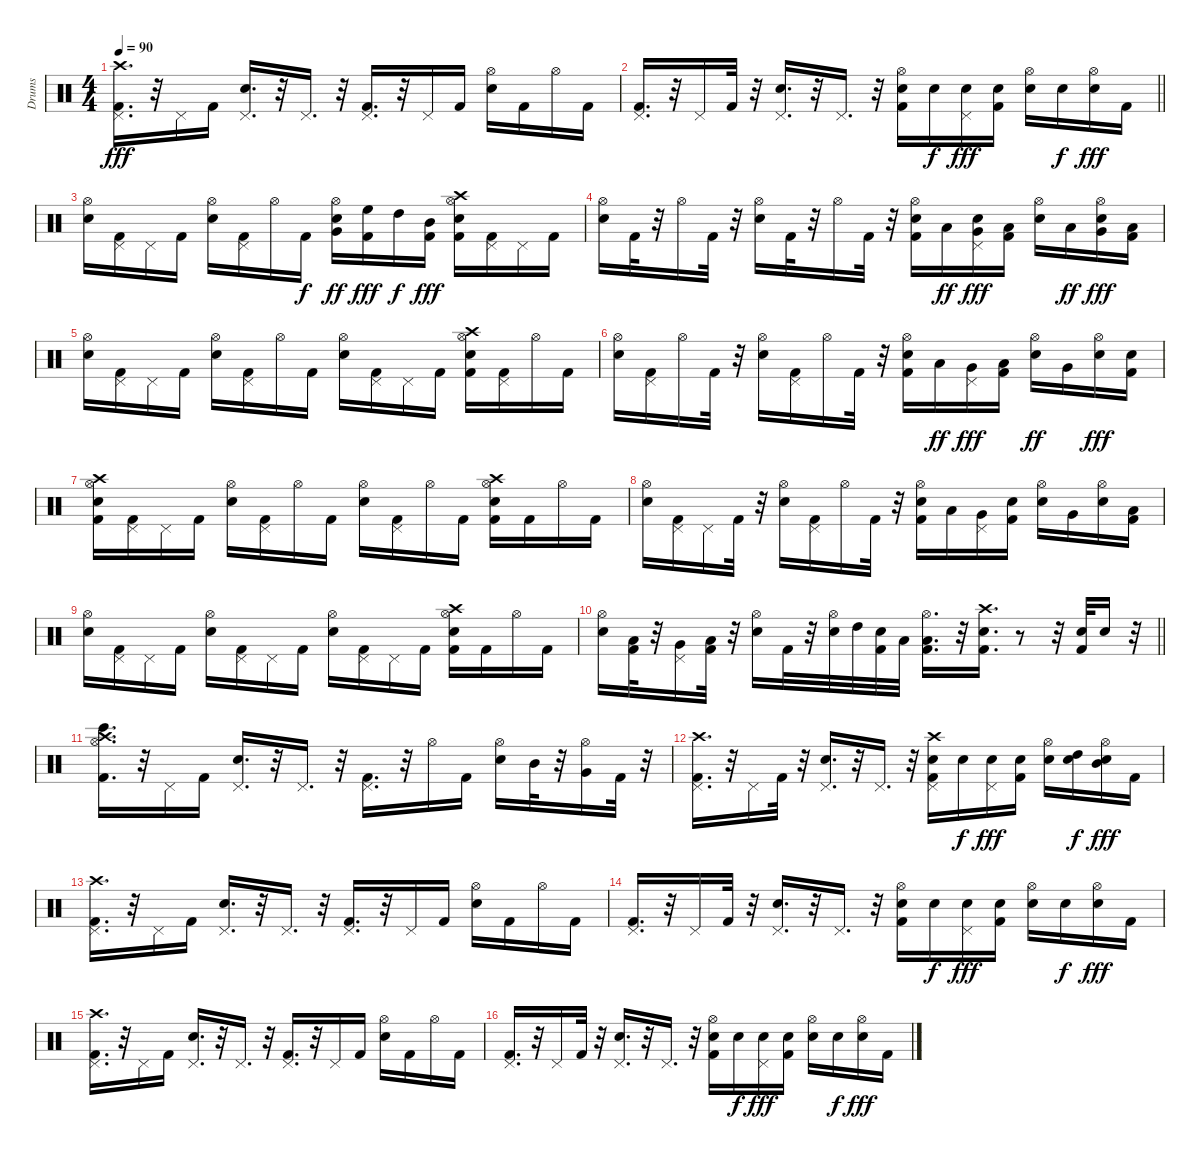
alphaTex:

\track ("Drums" "Drums") {instrument percussion}
\staff {score}
\articulation defaults
\ts (4 4)
\tempo 90
\clef neutral
\ks c
("Crash high (hit)" "Kick (hit) 2" "Pedal Hi-Hat (hit)").16{d dy fff} r.32 "Pedal Hi-Hat (hit)".16 "Kick (hit) 2".16 ("Electric Snare (hit)" "Pedal Hi-Hat (hit)").16{d} r.32 "Pedal Hi-Hat (hit)".16{d} r.32 ("Pedal Hi-Hat (hit)" "Kick (hit) 2").16{d} r.32 "Pedal Hi-Hat (hit)".16 "Kick (hit) 2".16 ("Hi-Hat (open)" "Electric Snare (hit)").16 "Kick (hit) 2".16 "Hi-Hat (open)".16 "Kick (hit) 2".16 |
\barLineRight lightlight
("Pedal Hi-Hat (hit)" "Kick (hit) 2").16{d} r.32 "Pedal Hi-Hat (hit)".16 "Kick (hit) 2".32 r.32 ("Pedal Hi-Hat (hit)" "Electric Snare (hit)").16{d} r.32 "Pedal Hi-Hat (hit)".16{d} r.32 ("Hi-Hat (open)" "Electric Snare (hit)" "Kick (hit) 2").16 "Electric Snare (hit)".16{dy f} ("Pedal Hi-Hat (hit)" "Electric Snare (hit)").16{dy fff} ("Electric Snare (hit)" "Kick (hit) 2").16 ("Hi-Hat (open)" "Electric Snare (hit)").16 "Electric Snare (hit)".16{dy f} ("Hi-Hat (open)" "Electric Snare (hit)").16{dy fff} "Kick (hit) 2".16 |
("Hi-Hat (open)" "Electric Snare (hit)").16 ("Kick (hit) 2" "Pedal Hi-Hat (hit)").16 "Pedal Hi-Hat (hit)".16 "Kick (hit) 2".16 ("Electric Snare (hit)" "Hi-Hat (open)").16 ("Kick (hit) 2" "Pedal Hi-Hat (hit)").16 "Hi-Hat (open)".16 "Kick (hit) 2".16{dy f} ("Electric Snare (hit)" "Hi-Hat (open)" "Very Low Tom (hit)").16{dy ff} ("Kick (hit) 2" "High Floor Tom (hit)").16{dy fff} "High Tom (hit)".16{dy f} ("Kick (hit) 2" "Mid Tom (hit)").16{dy fff} ("Kick (hit) 2" "Crash high (hit)" "Hi-Hat (open)" "Electric Snare (hit)").16 ("Kick (hit) 2" "Pedal Hi-Hat (hit)").16 "Pedal Hi-Hat (hit)".16 "Kick (hit) 2".16 |
("Hi-Hat (open)" "Electric Snare (hit)").16 "Kick (hit) 2".32 r.32 "Hi-Hat (open)".16 "Kick (hit) 2".32 r.32 ("Hi-Hat (open)" "Electric Snare (hit)").16 "Kick (hit) 2".32 r.32 "Hi-Hat (open)".16 "Kick (hit) 2".32 r.32 ("Hi-Hat (open)" "Electric Snare (hit)" "Kick (hit) 2").16 "Low Tom (hit)".16{dy ff} ("Electric Snare (hit)" "Pedal Hi-Hat (hit)" "Very Low Tom (hit)").16{dy fff} ("Low Floor Tom (hit)" "Kick (hit) 2").16 ("Hi-Hat (open)" "Electric Snare (hit)").16 "Low Tom (hit)".16{dy ff} ("Electric Snare (hit)" "Hi-Hat (open)" "Very Low Tom (hit)").16{dy fff} ("Low Floor Tom (hit)" "Kick (hit) 2").16 |
("Hi-Hat (open)" "Electric Snare (hit)").16 ("Pedal Hi-Hat (hit)" "Kick (hit) 2").16 "Pedal Hi-Hat (hit)".16 "Kick (hit) 2".16 ("Electric Snare (hit)" "Hi-Hat (open)").16 ("Pedal Hi-Hat (hit)" "Kick (hit) 2").16 "Hi-Hat (open)".16 "Kick (hit) 2".16 ("Electric Snare (hit)" "Hi-Hat (open)").16 ("Pedal Hi-Hat (hit)" "Kick (hit) 2").16 "Pedal Hi-Hat (hit)".16 "Kick (hit) 2".16 ("Kick (hit) 2" "Crash high (hit)" "Hi-Hat (open)" "Electric Snare (hit)").16 ("Pedal Hi-Hat (hit)" "Kick (hit) 2").16 "Hi-Hat (open)".16 "Kick (hit) 2".16 |
("Hi-Hat (open)" "Electric Snare (hit)").16 ("Pedal Hi-Hat (hit)" "Kick (hit) 2").16 "Hi-Hat (open)".16 "Kick (hit) 2".32 r.32 ("Hi-Hat (open)" "Electric Snare (hit)").16 ("Pedal Hi-Hat (hit)" "Kick (hit) 2").16 "Hi-Hat (open)".16 "Kick (hit) 2".32 r.32 ("Hi-Hat (open)" "Electric Snare (hit)" "Kick (hit) 2").16 "Low Tom (hit)".16{dy ff} ("Pedal Hi-Hat (hit)" "Very Low Tom (hit)").16{dy fff} ("Low Floor Tom (hit)" "Kick (hit) 2").16 ("Hi-Hat (open)" "Electric Snare (hit)").16{dy ff} "Very Low Tom (hit)".16 ("Hi-Hat (open)" "Electric Snare (hit)").16{dy fff} ("Electric Snare (hit)" "Kick (hit) 2").16 |
("Kick (hit) 2" "Crash high (hit)" "Hi-Hat (open)" "Electric Snare (hit)").16 ("Pedal Hi-Hat (hit)" "Kick (hit) 2").16 "Pedal Hi-Hat (hit)".16 "Kick (hit) 2".16 ("Electric Snare (hit)" "Hi-Hat (open)").16 ("Pedal Hi-Hat (hit)" "Kick (hit) 2").16 "Hi-Hat (open)".16 "Kick (hit) 2".16 ("Electric Snare (hit)" "Hi-Hat (open)").16 ("Pedal Hi-Hat (hit)" "Kick (hit) 2").16 "Hi-Hat (open)".16 "Kick (hit) 2".16 ("Kick (hit) 2" "Crash high (hit)" "Hi-Hat (open)" "Electric Snare (hit)").16 "Kick (hit) 2".16 "Hi-Hat (open)".16 "Kick (hit) 2".16 |
("Hi-Hat (open)" "Electric Snare (hit)").16 ("Pedal Hi-Hat (hit)" "Kick (hit) 2").16 "Pedal Hi-Hat (hit)".16 "Kick (hit) 2".32 r.32 ("Hi-Hat (open)" "Electric Snare (hit)").16 ("Pedal Hi-Hat (hit)" "Kick (hit) 2").16 "Hi-Hat (open)".16 "Kick (hit) 2".32 r.32 ("Hi-Hat (open)" "Kick (hit) 2" "Electric Snare (hit)").16 "Low Tom (hit)".16 ("Pedal Hi-Hat (hit)" "Very Low Tom (hit)").16 ("Electric Snare (hit)" "Kick (hit) 2").16 ("Hi-Hat (open)" "Electric Snare (hit)").16 "Very Low Tom (hit)".16 ("Hi-Hat (open)" "Electric Snare (hit)").16 ("Low Floor Tom (hit)" "Kick (hit) 2").16 |
("Hi-Hat (open)" "Electric Snare (hit)").16 ("Pedal Hi-Hat (hit)" "Kick (hit) 2").16 "Pedal Hi-Hat (hit)".16 "Kick (hit) 2".16 ("Electric Snare (hit)" "Hi-Hat (open)").16 ("Pedal Hi-Hat (hit)" "Kick (hit) 2").16 "Pedal Hi-Hat (hit)".16 "Kick (hit) 2".16 ("Electric Snare (hit)" "Hi-Hat (open)").16 ("Pedal Hi-Hat (hit)" "Kick (hit) 2").16 "Pedal Hi-Hat (hit)".16 "Kick (hit) 2".16 ("Kick (hit) 2" "Crash high (hit)" "Hi-Hat (open)" "Electric Snare (hit)").16 "Kick (hit) 2".16 "Hi-Hat (open)".16 "Kick (hit) 2".16 |
\barLineRight lightlight
("Hi-Hat (open)" "Electric Snare (hit)").16 ("Kick (hit) 2" "Low Tom (hit)").32 r.32 ("Very Low Tom (hit)" "Pedal Hi-Hat (hit)").16 ("Kick (hit) 2" "Low Floor Tom (hit)").32 r.32 ("Hi-Hat (open)" "Electric Snare (hit)").16 "Kick (hit) 2".32 r.32 ("Electric Snare (hit)" "Hi-Hat (open)").32 "High Tom (hit)".32 ("Electric Snare (hit)" "Kick (hit) 2").32 "Low Tom (hit)".32 ("Hi-Hat (open)" "Low Floor Tom (hit)" "Kick (hit) 2").16{d} r.32 ("Crash high (hit)" "Kick (hit) 2" "Electric Snare (hit)").16{d} r.8 r.32 ("Kick (hit) 2" "Electric Snare (hit)").32 "Electric Snare (hit)".16 r.32 |
("Bongo High (hit)" "Crash high (hit)" "Kick (hit) 2" "Hi-Hat (open)").16{d} r.32 "Pedal Hi-Hat (hit)".16 "Kick (hit) 2".16 ("Electric Snare (hit)" "Pedal Hi-Hat (hit)").16{d} r.32 "Pedal Hi-Hat (hit)".16{d} r.32 ("Kick (hit) 2" "Pedal Hi-Hat (hit)").16{d} r.32 "Hi-Hat (open)".16 "Kick (hit) 2".16 ("Electric Snare (hit)" "Hi-Hat (open)").16 "Mid Tom (hit)".32 r.32 ("Hi-Hat (open)" "Very Low Tom (hit)").16 "Kick (hit) 2".32 r.32 |
("Crash high (hit)" "Kick (hit) 2" "Pedal Hi-Hat (hit)").16{d} r.32 "Pedal Hi-Hat (hit)".16 "Kick (hit) 2".32 r.32 ("Electric Snare (hit)" "Pedal Hi-Hat (hit)").16{d} r.32 "Pedal Hi-Hat (hit)".16{d} r.32 ("Electric Snare (hit)" "Crash high (hit)" "Kick (hit) 2" "Pedal Hi-Hat (hit)").16 "Electric Snare (hit)".16{dy f} ("Electric Snare (hit)" "Pedal Hi-Hat (hit)").16{dy fff} ("Electric Snare (hit)" "Kick (hit) 2").16 ("Electric Snare (hit)" "Hi-Hat (open)").16 ("High Tom (hit)" "Electric Snare (hit)").16{dy f} ("Mid Tom (hit)" "Electric Snare (hit)" "Hi-Hat (open)").16{dy fff} "Kick (hit) 2".16 |
("Crash high (hit)" "Kick (hit) 2" "Pedal Hi-Hat (hit)").16{d} r.32 "Pedal Hi-Hat (hit)".16 "Kick (hit) 2".16 ("Electric Snare (hit)" "Pedal Hi-Hat (hit)").16{d} r.32 "Pedal Hi-Hat (hit)".16{d} r.32 ("Pedal Hi-Hat (hit)" "Kick (hit) 2").16{d} r.32 "Pedal Hi-Hat (hit)".16 "Kick (hit) 2".16 ("Hi-Hat (open)" "Electric Snare (hit)").16 "Kick (hit) 2".16 "Hi-Hat (open)".16 "Kick (hit) 2".16 |
("Pedal Hi-Hat (hit)" "Kick (hit) 2").16{d} r.32 "Pedal Hi-Hat (hit)".16 "Kick (hit) 2".32 r.32 ("Pedal Hi-Hat (hit)" "Electric Snare (hit)").16{d} r.32 "Pedal Hi-Hat (hit)".16{d} r.32 ("Hi-Hat (open)" "Electric Snare (hit)" "Kick (hit) 2").16 "Electric Snare (hit)".16{dy f} ("Pedal Hi-Hat (hit)" "Electric Snare (hit)").16{dy fff} ("Electric Snare (hit)" "Kick (hit) 2").16 ("Hi-Hat (open)" "Electric Snare (hit)").16 "Electric Snare (hit)".16{dy f} ("Hi-Hat (open)" "Electric Snare (hit)").16{dy fff} "Kick (hit) 2".16 |
("Crash high (hit)" "Kick (hit) 2" "Pedal Hi-Hat (hit)").16{d} r.32 "Pedal Hi-Hat (hit)".16 "Kick (hit) 2".16 ("Electric Snare (hit)" "Pedal Hi-Hat (hit)").16{d} r.32 "Pedal Hi-Hat (hit)".16{d} r.32 ("Pedal Hi-Hat (hit)" "Kick (hit) 2").16{d} r.32 "Pedal Hi-Hat (hit)".16 "Kick (hit) 2".16 ("Hi-Hat (open)" "Electric Snare (hit)").16 "Kick (hit) 2".16 "Hi-Hat (open)".16 "Kick (hit) 2".16 |
("Pedal Hi-Hat (hit)" "Kick (hit) 2").16{d} r.32 "Pedal Hi-Hat (hit)".16 "Kick (hit) 2".32 r.32 ("Pedal Hi-Hat (hit)" "Electric Snare (hit)").16{d} r.32 "Pedal Hi-Hat (hit)".16{d} r.32 ("Hi-Hat (open)" "Electric Snare (hit)" "Kick (hit) 2").16 "Electric Snare (hit)".16{dy f} ("Pedal Hi-Hat (hit)" "Electric Snare (hit)").16{dy fff} ("Electric Snare (hit)" "Kick (hit) 2").16 ("Hi-Hat (open)" "Electric Snare (hit)").16 "Electric Snare (hit)".16{dy f} ("Hi-Hat (open)" "Electric Snare (hit)").16{dy fff} "Kick (hit) 2".16
